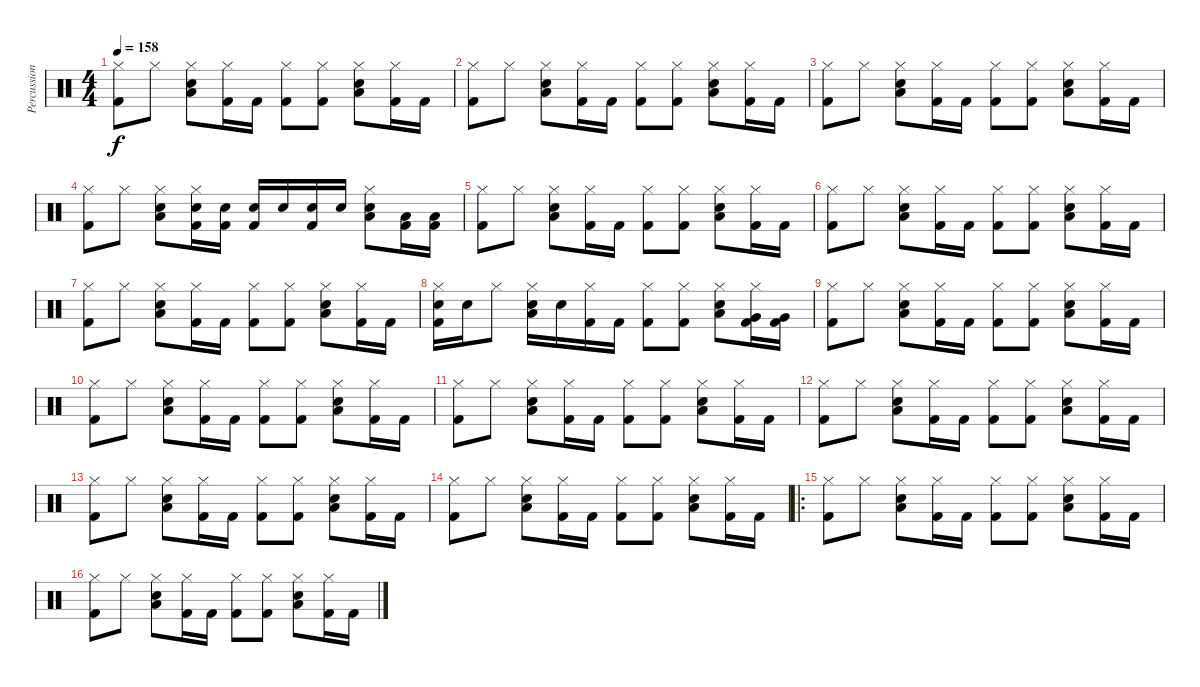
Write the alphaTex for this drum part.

\track ("Percussion" "Percussion") {instrument percussion}
\staff {score}
\articulation defaults
\ts (4 4)
\tempo 158
\clef neutral
\ks c
("Hi-Hat (closed)" "Kick (hit) 2").8{dy f} "Hi-Hat (closed)".8 ("Hi-Hat (closed)" "Low Tom (hit)" "Snare (hit) 2").8 ("Hi-Hat (closed)" "Kick (hit) 2").16 "Kick (hit) 2".16 ("Kick (hit) 2" "Hi-Hat (closed)").8 ("Kick (hit) 2" "Hi-Hat (closed)").8 ("Snare (hit) 2" "Low Tom (hit)" "Hi-Hat (closed)").8 ("Kick (hit) 2" "Hi-Hat (closed)").16 "Kick (hit) 2".16 |
("Hi-Hat (closed)" "Kick (hit) 2").8 "Hi-Hat (closed)".8 ("Hi-Hat (closed)" "Low Tom (hit)" "Snare (hit) 2").8 ("Hi-Hat (closed)" "Kick (hit) 2").16 "Kick (hit) 2".16 ("Kick (hit) 2" "Hi-Hat (closed)").8 ("Kick (hit) 2" "Hi-Hat (closed)").8 ("Snare (hit) 2" "Low Tom (hit)" "Hi-Hat (closed)").8 ("Kick (hit) 2" "Hi-Hat (closed)").16 "Kick (hit) 2".16 |
("Hi-Hat (closed)" "Kick (hit) 2").8 "Hi-Hat (closed)".8 ("Hi-Hat (closed)" "Low Tom (hit)" "Snare (hit) 2").8 ("Hi-Hat (closed)" "Kick (hit) 2").16 "Kick (hit) 2".16 ("Kick (hit) 2" "Hi-Hat (closed)").8 ("Kick (hit) 2" "Hi-Hat (closed)").8 ("Snare (hit) 2" "Low Tom (hit)" "Hi-Hat (closed)").8 ("Kick (hit) 2" "Hi-Hat (closed)").16 "Kick (hit) 2".16 |
("Hi-Hat (closed)" "Kick (hit) 2").8 "Hi-Hat (closed)".8 ("Hi-Hat (closed)" "Low Tom (hit)" "Snare (hit) 2").8 ("Hi-Hat (closed)" "Kick (hit) 2" "Snare (hit) 2").16 ("Kick (hit) 2" "Snare (hit) 2").16 ("Kick (hit) 2" "Snare (hit) 2").16 "Snare (hit) 2".16 ("Kick (hit) 2" "Snare (hit) 2").16 "Snare (hit) 2".16 ("Snare (hit) 2" "Low Tom (hit)" "Hi-Hat (closed)").8 ("Kick (hit) 2" "Low Tom (hit)").16 ("Kick (hit) 2" "Low Tom (hit)").16 |
("Hi-Hat (closed)" "Kick (hit) 2").8 "Hi-Hat (closed)".8 ("Hi-Hat (closed)" "Low Tom (hit)" "Snare (hit) 2").8 ("Hi-Hat (closed)" "Kick (hit) 2").16 "Kick (hit) 2".16 ("Kick (hit) 2" "Hi-Hat (closed)").8 ("Kick (hit) 2" "Hi-Hat (closed)").8 ("Snare (hit) 2" "Low Tom (hit)" "Hi-Hat (closed)").8 ("Kick (hit) 2" "Hi-Hat (closed)").16 "Kick (hit) 2".16 |
("Hi-Hat (closed)" "Kick (hit) 2").8 "Hi-Hat (closed)".8 ("Hi-Hat (closed)" "Low Tom (hit)" "Snare (hit) 2").8 ("Hi-Hat (closed)" "Kick (hit) 2").16 "Kick (hit) 2".16 ("Kick (hit) 2" "Hi-Hat (closed)").8 ("Kick (hit) 2" "Hi-Hat (closed)").8 ("Snare (hit) 2" "Low Tom (hit)" "Hi-Hat (closed)").8 ("Kick (hit) 2" "Hi-Hat (closed)").16 "Kick (hit) 2".16 |
("Hi-Hat (closed)" "Kick (hit) 2").8 "Hi-Hat (closed)".8 ("Hi-Hat (closed)" "Low Tom (hit)" "Snare (hit) 2").8 ("Hi-Hat (closed)" "Kick (hit) 2").16 "Kick (hit) 2".16 ("Kick (hit) 2" "Hi-Hat (closed)").8 ("Kick (hit) 2" "Hi-Hat (closed)").8 ("Snare (hit) 2" "Low Tom (hit)" "Hi-Hat (closed)").8 ("Kick (hit) 2" "Hi-Hat (closed)").16 "Kick (hit) 2".16 |
("Hi-Hat (closed)" "Kick (hit) 2" "Snare (hit) 2").16 "Snare (hit) 2".16 "Hi-Hat (closed)".8 ("Hi-Hat (closed)" "Low Tom (hit)" "Snare (hit) 2").16 "Snare (hit) 2".16 ("Hi-Hat (closed)" "Kick (hit) 2").16 "Kick (hit) 2".16 ("Kick (hit) 2" "Hi-Hat (closed)").8 ("Kick (hit) 2" "Hi-Hat (closed)").8 ("Snare (hit) 2" "Low Tom (hit)" "Hi-Hat (closed)").8 ("Kick (hit) 2" "Hi-Hat (closed)" "Very Low Tom (hit)").16 ("Kick (hit) 2" "Very Low Tom (hit)").16 |
("Hi-Hat (closed)" "Kick (hit) 2").8 "Hi-Hat (closed)".8 ("Hi-Hat (closed)" "Low Tom (hit)" "Snare (hit) 2").8 ("Hi-Hat (closed)" "Kick (hit) 2").16 "Kick (hit) 2".16 ("Kick (hit) 2" "Hi-Hat (closed)").8 ("Kick (hit) 2" "Hi-Hat (closed)").8 ("Snare (hit) 2" "Low Tom (hit)" "Hi-Hat (closed)").8 ("Kick (hit) 2" "Hi-Hat (closed)").16 "Kick (hit) 2".16 |
("Hi-Hat (closed)" "Kick (hit) 2").8 "Hi-Hat (closed)".8 ("Hi-Hat (closed)" "Low Tom (hit)" "Snare (hit) 2").8 ("Hi-Hat (closed)" "Kick (hit) 2").16 "Kick (hit) 2".16 ("Kick (hit) 2" "Hi-Hat (closed)").8 ("Kick (hit) 2" "Hi-Hat (closed)").8 ("Snare (hit) 2" "Low Tom (hit)" "Hi-Hat (closed)").8 ("Kick (hit) 2" "Hi-Hat (closed)").16 "Kick (hit) 2".16 |
("Hi-Hat (closed)" "Kick (hit) 2").8 "Hi-Hat (closed)".8 ("Hi-Hat (closed)" "Low Tom (hit)" "Snare (hit) 2").8 ("Hi-Hat (closed)" "Kick (hit) 2").16 "Kick (hit) 2".16 ("Kick (hit) 2" "Hi-Hat (closed)").8 ("Kick (hit) 2" "Hi-Hat (closed)").8 ("Snare (hit) 2" "Low Tom (hit)" "Hi-Hat (closed)").8 ("Kick (hit) 2" "Hi-Hat (closed)").16 "Kick (hit) 2".16 |
("Hi-Hat (closed)" "Kick (hit) 2").8 "Hi-Hat (closed)".8 ("Hi-Hat (closed)" "Low Tom (hit)" "Snare (hit) 2").8 ("Hi-Hat (closed)" "Kick (hit) 2").16 "Kick (hit) 2".16 ("Kick (hit) 2" "Hi-Hat (closed)").8 ("Kick (hit) 2" "Hi-Hat (closed)").8 ("Snare (hit) 2" "Low Tom (hit)" "Hi-Hat (closed)").8 ("Kick (hit) 2" "Hi-Hat (closed)").16 "Kick (hit) 2".16 |
("Hi-Hat (closed)" "Kick (hit) 2").8 "Hi-Hat (closed)".8 ("Hi-Hat (closed)" "Low Tom (hit)" "Snare (hit) 2").8 ("Hi-Hat (closed)" "Kick (hit) 2").16 "Kick (hit) 2".16 ("Kick (hit) 2" "Hi-Hat (closed)").8 ("Kick (hit) 2" "Hi-Hat (closed)").8 ("Snare (hit) 2" "Low Tom (hit)" "Hi-Hat (closed)").8 ("Kick (hit) 2" "Hi-Hat (closed)").16 "Kick (hit) 2".16 |
("Hi-Hat (closed)" "Kick (hit) 2").8 "Hi-Hat (closed)".8 ("Hi-Hat (closed)" "Low Tom (hit)" "Snare (hit) 2").8 ("Hi-Hat (closed)" "Kick (hit) 2").16 "Kick (hit) 2".16 ("Kick (hit) 2" "Hi-Hat (closed)").8 ("Kick (hit) 2" "Hi-Hat (closed)").8 ("Snare (hit) 2" "Low Tom (hit)" "Hi-Hat (closed)").8 ("Kick (hit) 2" "Hi-Hat (closed)").16 "Kick (hit) 2".16 |
\ro
("Hi-Hat (closed)" "Kick (hit) 2").8 "Hi-Hat (closed)".8 ("Hi-Hat (closed)" "Low Tom (hit)" "Snare (hit) 2").8 ("Hi-Hat (closed)" "Kick (hit) 2").16 "Kick (hit) 2".16 ("Kick (hit) 2" "Hi-Hat (closed)").8 ("Kick (hit) 2" "Hi-Hat (closed)").8 ("Snare (hit) 2" "Low Tom (hit)" "Hi-Hat (closed)").8 ("Kick (hit) 2" "Hi-Hat (closed)").16 "Kick (hit) 2".16 |
("Hi-Hat (closed)" "Kick (hit) 2").8 "Hi-Hat (closed)".8 ("Hi-Hat (closed)" "Low Tom (hit)" "Snare (hit) 2").8 ("Hi-Hat (closed)" "Kick (hit) 2").16 "Kick (hit) 2".16 ("Kick (hit) 2" "Hi-Hat (closed)").8 ("Kick (hit) 2" "Hi-Hat (closed)").8 ("Snare (hit) 2" "Low Tom (hit)" "Hi-Hat (closed)").8 ("Kick (hit) 2" "Hi-Hat (closed)").16 "Kick (hit) 2".16
